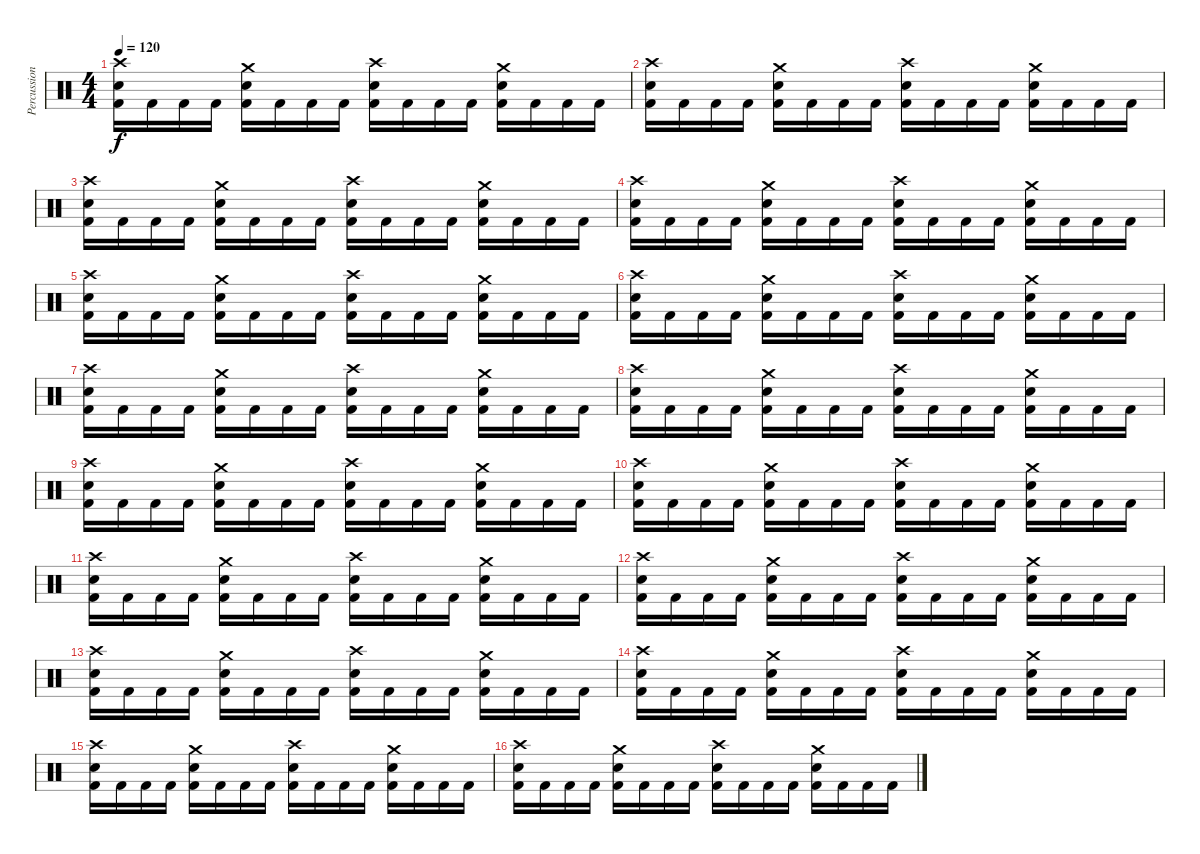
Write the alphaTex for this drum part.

\track ("Percussion" "Percussion") {instrument percussion}
\staff {score}
\articulation defaults
\ts (4 4)
\tempo 120
\clef neutral
\ks c
("Crash high (hit)" "Snare (hit) 2" "Kick (hit) 2").16{dy f} "Kick (hit) 2".16 "Kick (hit) 2".16 "Kick (hit) 2".16 ("Crash medium (hit)" "Snare (hit) 2" "Kick (hit) 2").16 "Kick (hit) 2".16 "Kick (hit) 2".16 "Kick (hit) 2".16 ("Crash high (hit)" "Snare (hit) 2" "Kick (hit) 2").16 "Kick (hit) 2".16 "Kick (hit) 2".16 "Kick (hit) 2".16 ("Crash medium (hit)" "Snare (hit) 2" "Kick (hit) 2").16 "Kick (hit) 2".16 "Kick (hit) 2".16 "Kick (hit) 2".16 |
("Crash high (hit)" "Snare (hit) 2" "Kick (hit) 2").16 "Kick (hit) 2".16 "Kick (hit) 2".16 "Kick (hit) 2".16 ("Crash medium (hit)" "Snare (hit) 2" "Kick (hit) 2").16 "Kick (hit) 2".16 "Kick (hit) 2".16 "Kick (hit) 2".16 ("Crash high (hit)" "Snare (hit) 2" "Kick (hit) 2").16 "Kick (hit) 2".16 "Kick (hit) 2".16 "Kick (hit) 2".16 ("Crash medium (hit)" "Snare (hit) 2" "Kick (hit) 2").16 "Kick (hit) 2".16 "Kick (hit) 2".16 "Kick (hit) 2".16 |
("Crash high (hit)" "Snare (hit) 2" "Kick (hit) 2").16 "Kick (hit) 2".16 "Kick (hit) 2".16 "Kick (hit) 2".16 ("Crash medium (hit)" "Snare (hit) 2" "Kick (hit) 2").16 "Kick (hit) 2".16 "Kick (hit) 2".16 "Kick (hit) 2".16 ("Crash high (hit)" "Snare (hit) 2" "Kick (hit) 2").16 "Kick (hit) 2".16 "Kick (hit) 2".16 "Kick (hit) 2".16 ("Crash medium (hit)" "Snare (hit) 2" "Kick (hit) 2").16 "Kick (hit) 2".16 "Kick (hit) 2".16 "Kick (hit) 2".16 |
("Crash high (hit)" "Snare (hit) 2" "Kick (hit) 2").16 "Kick (hit) 2".16 "Kick (hit) 2".16 "Kick (hit) 2".16 ("Crash medium (hit)" "Snare (hit) 2" "Kick (hit) 2").16 "Kick (hit) 2".16 "Kick (hit) 2".16 "Kick (hit) 2".16 ("Crash high (hit)" "Snare (hit) 2" "Kick (hit) 2").16 "Kick (hit) 2".16 "Kick (hit) 2".16 "Kick (hit) 2".16 ("Crash medium (hit)" "Snare (hit) 2" "Kick (hit) 2").16 "Kick (hit) 2".16 "Kick (hit) 2".16 "Kick (hit) 2".16 |
("Crash high (hit)" "Snare (hit) 2" "Kick (hit) 2").16 "Kick (hit) 2".16 "Kick (hit) 2".16 "Kick (hit) 2".16 ("Crash medium (hit)" "Snare (hit) 2" "Kick (hit) 2").16 "Kick (hit) 2".16 "Kick (hit) 2".16 "Kick (hit) 2".16 ("Crash high (hit)" "Snare (hit) 2" "Kick (hit) 2").16 "Kick (hit) 2".16 "Kick (hit) 2".16 "Kick (hit) 2".16 ("Crash medium (hit)" "Snare (hit) 2" "Kick (hit) 2").16 "Kick (hit) 2".16 "Kick (hit) 2".16 "Kick (hit) 2".16 |
("Crash high (hit)" "Snare (hit) 2" "Kick (hit) 2").16 "Kick (hit) 2".16 "Kick (hit) 2".16 "Kick (hit) 2".16 ("Crash medium (hit)" "Snare (hit) 2" "Kick (hit) 2").16 "Kick (hit) 2".16 "Kick (hit) 2".16 "Kick (hit) 2".16 ("Crash high (hit)" "Snare (hit) 2" "Kick (hit) 2").16 "Kick (hit) 2".16 "Kick (hit) 2".16 "Kick (hit) 2".16 ("Crash medium (hit)" "Snare (hit) 2" "Kick (hit) 2").16 "Kick (hit) 2".16 "Kick (hit) 2".16 "Kick (hit) 2".16 |
("Crash high (hit)" "Snare (hit) 2" "Kick (hit) 2").16 "Kick (hit) 2".16 "Kick (hit) 2".16 "Kick (hit) 2".16 ("Crash medium (hit)" "Snare (hit) 2" "Kick (hit) 2").16 "Kick (hit) 2".16 "Kick (hit) 2".16 "Kick (hit) 2".16 ("Crash high (hit)" "Snare (hit) 2" "Kick (hit) 2").16 "Kick (hit) 2".16 "Kick (hit) 2".16 "Kick (hit) 2".16 ("Crash medium (hit)" "Snare (hit) 2" "Kick (hit) 2").16 "Kick (hit) 2".16 "Kick (hit) 2".16 "Kick (hit) 2".16 |
("Crash high (hit)" "Snare (hit) 2" "Kick (hit) 2").16 "Kick (hit) 2".16 "Kick (hit) 2".16 "Kick (hit) 2".16 ("Crash medium (hit)" "Snare (hit) 2" "Kick (hit) 2").16 "Kick (hit) 2".16 "Kick (hit) 2".16 "Kick (hit) 2".16 ("Crash high (hit)" "Snare (hit) 2" "Kick (hit) 2").16 "Kick (hit) 2".16 "Kick (hit) 2".16 "Kick (hit) 2".16 ("Crash medium (hit)" "Snare (hit) 2" "Kick (hit) 2").16 "Kick (hit) 2".16 "Kick (hit) 2".16 "Kick (hit) 2".16 |
("Crash high (hit)" "Snare (hit) 2" "Kick (hit) 2").16 "Kick (hit) 2".16 "Kick (hit) 2".16 "Kick (hit) 2".16 ("Crash medium (hit)" "Snare (hit) 2" "Kick (hit) 2").16 "Kick (hit) 2".16 "Kick (hit) 2".16 "Kick (hit) 2".16 ("Crash high (hit)" "Snare (hit) 2" "Kick (hit) 2").16 "Kick (hit) 2".16 "Kick (hit) 2".16 "Kick (hit) 2".16 ("Crash medium (hit)" "Snare (hit) 2" "Kick (hit) 2").16 "Kick (hit) 2".16 "Kick (hit) 2".16 "Kick (hit) 2".16 |
("Crash high (hit)" "Snare (hit) 2" "Kick (hit) 2").16 "Kick (hit) 2".16 "Kick (hit) 2".16 "Kick (hit) 2".16 ("Crash medium (hit)" "Snare (hit) 2" "Kick (hit) 2").16 "Kick (hit) 2".16 "Kick (hit) 2".16 "Kick (hit) 2".16 ("Crash high (hit)" "Snare (hit) 2" "Kick (hit) 2").16 "Kick (hit) 2".16 "Kick (hit) 2".16 "Kick (hit) 2".16 ("Crash medium (hit)" "Snare (hit) 2" "Kick (hit) 2").16 "Kick (hit) 2".16 "Kick (hit) 2".16 "Kick (hit) 2".16 |
("Crash high (hit)" "Snare (hit) 2" "Kick (hit) 2").16 "Kick (hit) 2".16 "Kick (hit) 2".16 "Kick (hit) 2".16 ("Crash medium (hit)" "Snare (hit) 2" "Kick (hit) 2").16 "Kick (hit) 2".16 "Kick (hit) 2".16 "Kick (hit) 2".16 ("Crash high (hit)" "Snare (hit) 2" "Kick (hit) 2").16 "Kick (hit) 2".16 "Kick (hit) 2".16 "Kick (hit) 2".16 ("Crash medium (hit)" "Snare (hit) 2" "Kick (hit) 2").16 "Kick (hit) 2".16 "Kick (hit) 2".16 "Kick (hit) 2".16 |
("Crash high (hit)" "Snare (hit) 2" "Kick (hit) 2").16 "Kick (hit) 2".16 "Kick (hit) 2".16 "Kick (hit) 2".16 ("Crash medium (hit)" "Snare (hit) 2" "Kick (hit) 2").16 "Kick (hit) 2".16 "Kick (hit) 2".16 "Kick (hit) 2".16 ("Crash high (hit)" "Snare (hit) 2" "Kick (hit) 2").16 "Kick (hit) 2".16 "Kick (hit) 2".16 "Kick (hit) 2".16 ("Crash medium (hit)" "Snare (hit) 2" "Kick (hit) 2").16 "Kick (hit) 2".16 "Kick (hit) 2".16 "Kick (hit) 2".16 |
("Crash high (hit)" "Snare (hit) 2" "Kick (hit) 2").16 "Kick (hit) 2".16 "Kick (hit) 2".16 "Kick (hit) 2".16 ("Crash medium (hit)" "Snare (hit) 2" "Kick (hit) 2").16 "Kick (hit) 2".16 "Kick (hit) 2".16 "Kick (hit) 2".16 ("Crash high (hit)" "Snare (hit) 2" "Kick (hit) 2").16 "Kick (hit) 2".16 "Kick (hit) 2".16 "Kick (hit) 2".16 ("Crash medium (hit)" "Snare (hit) 2" "Kick (hit) 2").16 "Kick (hit) 2".16 "Kick (hit) 2".16 "Kick (hit) 2".16 |
("Crash high (hit)" "Snare (hit) 2" "Kick (hit) 2").16 "Kick (hit) 2".16 "Kick (hit) 2".16 "Kick (hit) 2".16 ("Crash medium (hit)" "Snare (hit) 2" "Kick (hit) 2").16 "Kick (hit) 2".16 "Kick (hit) 2".16 "Kick (hit) 2".16 ("Crash high (hit)" "Snare (hit) 2" "Kick (hit) 2").16 "Kick (hit) 2".16 "Kick (hit) 2".16 "Kick (hit) 2".16 ("Crash medium (hit)" "Snare (hit) 2" "Kick (hit) 2").16 "Kick (hit) 2".16 "Kick (hit) 2".16 "Kick (hit) 2".16 |
("Crash high (hit)" "Snare (hit) 2" "Kick (hit) 2").16 "Kick (hit) 2".16 "Kick (hit) 2".16 "Kick (hit) 2".16 ("Crash medium (hit)" "Snare (hit) 2" "Kick (hit) 2").16 "Kick (hit) 2".16 "Kick (hit) 2".16 "Kick (hit) 2".16 ("Crash high (hit)" "Snare (hit) 2" "Kick (hit) 2").16 "Kick (hit) 2".16 "Kick (hit) 2".16 "Kick (hit) 2".16 ("Crash medium (hit)" "Snare (hit) 2" "Kick (hit) 2").16 "Kick (hit) 2".16 "Kick (hit) 2".16 "Kick (hit) 2".16 |
("Crash high (hit)" "Snare (hit) 2" "Kick (hit) 2").16 "Kick (hit) 2".16 "Kick (hit) 2".16 "Kick (hit) 2".16 ("Crash medium (hit)" "Snare (hit) 2" "Kick (hit) 2").16 "Kick (hit) 2".16 "Kick (hit) 2".16 "Kick (hit) 2".16 ("Crash high (hit)" "Snare (hit) 2" "Kick (hit) 2").16 "Kick (hit) 2".16 "Kick (hit) 2".16 "Kick (hit) 2".16 ("Crash medium (hit)" "Snare (hit) 2" "Kick (hit) 2").16 "Kick (hit) 2".16 "Kick (hit) 2".16 "Kick (hit) 2".16
